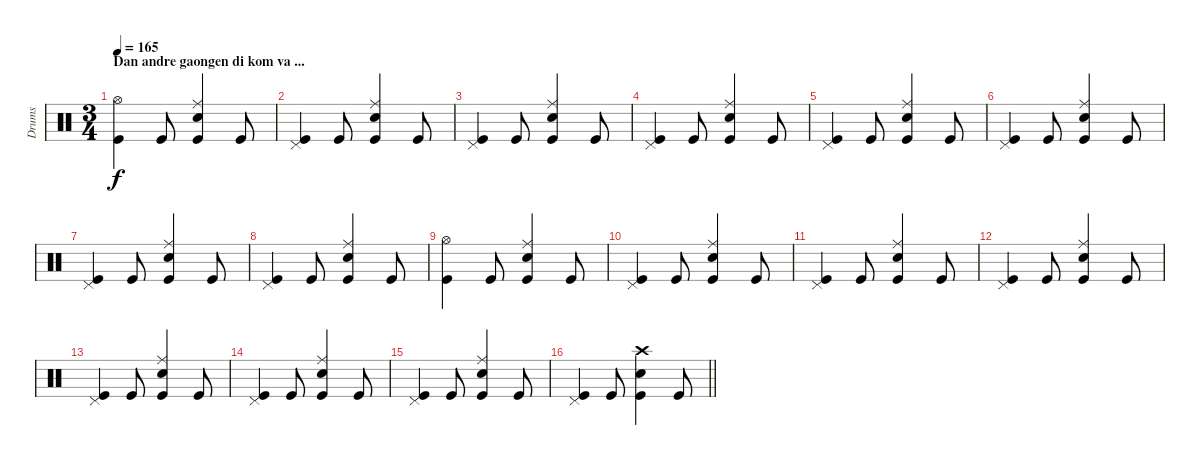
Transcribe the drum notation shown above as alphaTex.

\track ("Drums" "Drums") {instrument percussion}
\staff {score}
\articulation defaults
\ts (3 4)
\section ("" "Dan andre gaongen di kom va ...")
\tempo 165
\clef neutral
\ks c
("Hi-Hat (open)" "Kick (hit)").4{dy f} "Kick (hit)".8 ("Ride (middle)" "Snare (hit) 2" "Kick (hit)").4 "Kick (hit)".8 |
("Pedal Hi-Hat (hit)" "Kick (hit)").4 "Kick (hit)".8 ("Ride (middle)" "Snare (hit) 2" "Kick (hit)").4 "Kick (hit)".8 |
("Pedal Hi-Hat (hit)" "Kick (hit)").4 "Kick (hit)".8 ("Ride (middle)" "Snare (hit) 2" "Kick (hit)").4 "Kick (hit)".8 |
("Pedal Hi-Hat (hit)" "Kick (hit)").4 "Kick (hit)".8 ("Ride (middle)" "Snare (hit) 2" "Kick (hit)").4 "Kick (hit)".8 |
("Pedal Hi-Hat (hit)" "Kick (hit)").4 "Kick (hit)".8 ("Ride (middle)" "Snare (hit) 2" "Kick (hit)").4 "Kick (hit)".8 |
("Pedal Hi-Hat (hit)" "Kick (hit)").4 "Kick (hit)".8 ("Ride (middle)" "Snare (hit) 2" "Kick (hit)").4 "Kick (hit)".8 |
("Pedal Hi-Hat (hit)" "Kick (hit)").4 "Kick (hit)".8 ("Ride (middle)" "Snare (hit) 2" "Kick (hit)").4 "Kick (hit)".8 |
("Pedal Hi-Hat (hit)" "Kick (hit)").4 "Kick (hit)".8 ("Ride (middle)" "Snare (hit) 2" "Kick (hit)").4 "Kick (hit)".8 |
("Hi-Hat (open)" "Kick (hit)").4 "Kick (hit)".8 ("Ride (middle)" "Snare (hit) 2" "Kick (hit)").4 "Kick (hit)".8 |
("Pedal Hi-Hat (hit)" "Kick (hit)").4 "Kick (hit)".8 ("Ride (middle)" "Snare (hit) 2" "Kick (hit)").4 "Kick (hit)".8 |
("Pedal Hi-Hat (hit)" "Kick (hit)").4 "Kick (hit)".8 ("Ride (middle)" "Snare (hit) 2" "Kick (hit)").4 "Kick (hit)".8 |
("Pedal Hi-Hat (hit)" "Kick (hit)").4 "Kick (hit)".8 ("Ride (middle)" "Snare (hit) 2" "Kick (hit)").4 "Kick (hit)".8 |
("Pedal Hi-Hat (hit)" "Kick (hit)").4 "Kick (hit)".8 ("Ride (middle)" "Snare (hit) 2" "Kick (hit)").4 "Kick (hit)".8 |
("Pedal Hi-Hat (hit)" "Kick (hit)").4 "Kick (hit)".8 ("Ride (middle)" "Snare (hit) 2" "Kick (hit)").4 "Kick (hit)".8 |
("Pedal Hi-Hat (hit)" "Kick (hit)").4 "Kick (hit)".8 ("Ride (middle)" "Snare (hit) 2" "Kick (hit)").4 "Kick (hit)".8 |
\barLineRight lightlight
("Pedal Hi-Hat (hit)" "Kick (hit)").4 "Kick (hit)".8 ("Crash high (hit)" "Snare (hit) 2" "Kick (hit)").4 "Kick (hit)".8
